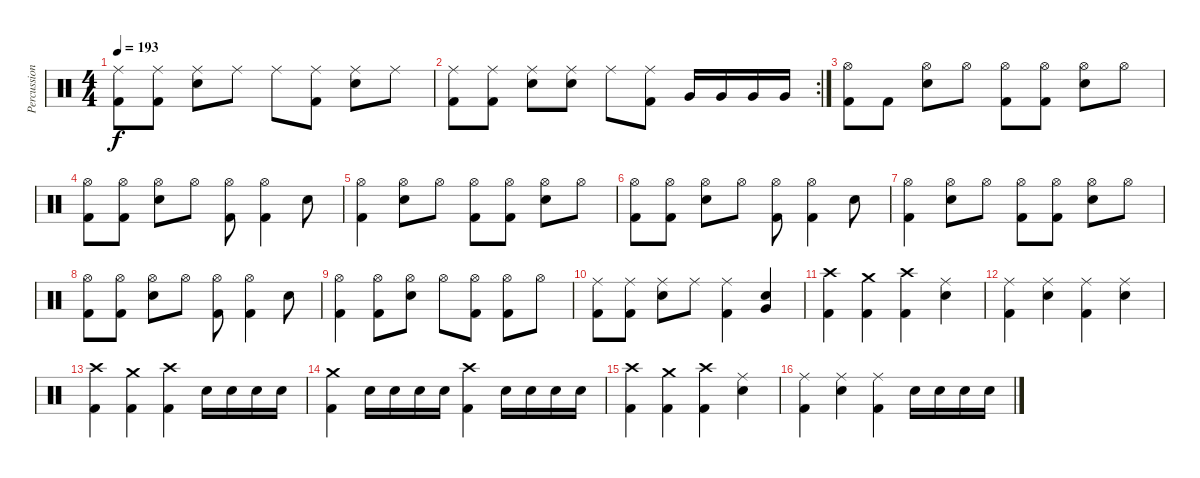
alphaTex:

\track ("Percussion" "Percussion") {instrument percussion}
\staff {score}
\articulation defaults
\ts (4 4)
\tempo 193
\clef neutral
\ks c
("Ride (middle)" "Kick (hit) 2").8{dy f} ("Ride (middle)" "Kick (hit) 2").8 ("Ride (middle)" "Snare (hit) 2").8 "Ride (middle)".8 "Ride (middle)".8 ("Ride (middle)" "Kick (hit) 2").8 ("Ride (middle)" "Snare (hit) 2").8 "Ride (middle)".8 |
\rc 2
("Ride (middle)" "Kick (hit) 2").8 ("Ride (middle)" "Kick (hit) 2").8 ("Ride (middle)" "Snare (hit) 2").8 ("Ride (middle)" "Snare (hit) 2").8 "Ride (middle)".8 ("Ride (middle)" "Kick (hit) 2").8 "Very Low Tom (hit)".16 "Very Low Tom (hit)".16 "Very Low Tom (hit)".16 "Very Low Tom (hit)".16 |
("Hi-Hat (open)" "Kick (hit) 2").8 "Kick (hit) 2".8 ("Hi-Hat (open)" "Snare (hit) 2").8 "Hi-Hat (open)".8 ("Hi-Hat (open)" "Kick (hit) 2").8 ("Hi-Hat (open)" "Kick (hit) 2").8 ("Hi-Hat (open)" "Snare (hit) 2").8 "Hi-Hat (open)".8 |
("Hi-Hat (open)" "Kick (hit) 2").8 ("Hi-Hat (open)" "Kick (hit) 2").8 ("Hi-Hat (open)" "Snare (hit) 2").8 "Hi-Hat (open)".8 ("Hi-Hat (open)" "Kick (hit) 2").8 ("Hi-Hat (open)" "Kick (hit) 2").4 "Snare (hit) 2".8 |
("Hi-Hat (open)" "Kick (hit) 2").4 ("Hi-Hat (open)" "Snare (hit) 2").8 "Hi-Hat (open)".8 ("Hi-Hat (open)" "Kick (hit) 2").8 ("Hi-Hat (open)" "Kick (hit) 2").8 ("Hi-Hat (open)" "Snare (hit) 2").8 "Hi-Hat (open)".8 |
("Hi-Hat (open)" "Kick (hit) 2").8 ("Hi-Hat (open)" "Kick (hit) 2").8 ("Hi-Hat (open)" "Snare (hit) 2").8 "Hi-Hat (open)".8 ("Hi-Hat (open)" "Kick (hit) 2").8 ("Hi-Hat (open)" "Kick (hit) 2").4 "Snare (hit) 2".8 |
("Hi-Hat (open)" "Kick (hit) 2").4 ("Hi-Hat (open)" "Snare (hit) 2").8 "Hi-Hat (open)".8 ("Hi-Hat (open)" "Kick (hit) 2").8 ("Hi-Hat (open)" "Kick (hit) 2").8 ("Hi-Hat (open)" "Snare (hit) 2").8 "Hi-Hat (open)".8 |
("Hi-Hat (open)" "Kick (hit) 2").8 ("Hi-Hat (open)" "Kick (hit) 2").8 ("Hi-Hat (open)" "Snare (hit) 2").8 "Hi-Hat (open)".8 ("Hi-Hat (open)" "Kick (hit) 2").8 ("Hi-Hat (open)" "Kick (hit) 2").4 "Snare (hit) 2".8 |
("Hi-Hat (open)" "Kick (hit) 2").4 ("Hi-Hat (open)" "Kick (hit) 2").8 ("Hi-Hat (open)" "Snare (hit) 2").8 "Hi-Hat (open)".8 ("Hi-Hat (open)" "Kick (hit) 2").8 ("Hi-Hat (open)" "Kick (hit) 2").8 "Hi-Hat (open)".8 |
("Ride (middle)" "Kick (hit) 2").8 ("Ride (middle)" "Kick (hit) 2").8 ("Ride (middle)" "Snare (hit) 2").8 "Ride (middle)".8 ("Ride (middle)" "Kick (hit) 2").4 ("Snare (hit) 2" "Very Low Tom (hit)").4 |
("Crash high (hit)" "Kick (hit) 2").4 ("Crash medium (hit)" "Kick (hit) 2").4 ("Crash high (hit)" "Kick (hit) 2").4 ("Ride (middle)" "Snare (hit) 2").4 |
("Ride (middle)" "Kick (hit) 2").4 ("Ride (middle)" "Snare (hit) 2").4 ("Ride (middle)" "Kick (hit) 2").4 ("Ride (middle)" "Snare (hit) 2").4 |
("Crash high (hit)" "Kick (hit) 2").4 ("Crash medium (hit)" "Kick (hit) 2").4 ("Crash high (hit)" "Kick (hit) 2").4 "Snare (hit) 2".16 "Snare (hit) 2".16 "Snare (hit) 2".16 "Snare (hit) 2".16 |
("Crash medium (hit)" "Kick (hit) 2").4 "Snare (hit) 2".16 "Snare (hit) 2".16 "Snare (hit) 2".16 "Snare (hit) 2".16 ("Crash high (hit)" "Kick (hit) 2").4 "Snare (hit) 2".16 "Snare (hit) 2".16 "Snare (hit) 2".16 "Snare (hit) 2".16 |
("Crash high (hit)" "Kick (hit) 2").4 ("Crash medium (hit)" "Kick (hit) 2").4 ("Crash high (hit)" "Kick (hit) 2").4 ("Ride (middle)" "Snare (hit) 2").4 |
("Ride (middle)" "Kick (hit) 2").4 ("Ride (middle)" "Snare (hit) 2").4 ("Ride (middle)" "Kick (hit) 2").4 "Snare (hit) 2".16 "Snare (hit) 2".16 "Snare (hit) 2".16 "Snare (hit) 2".16
